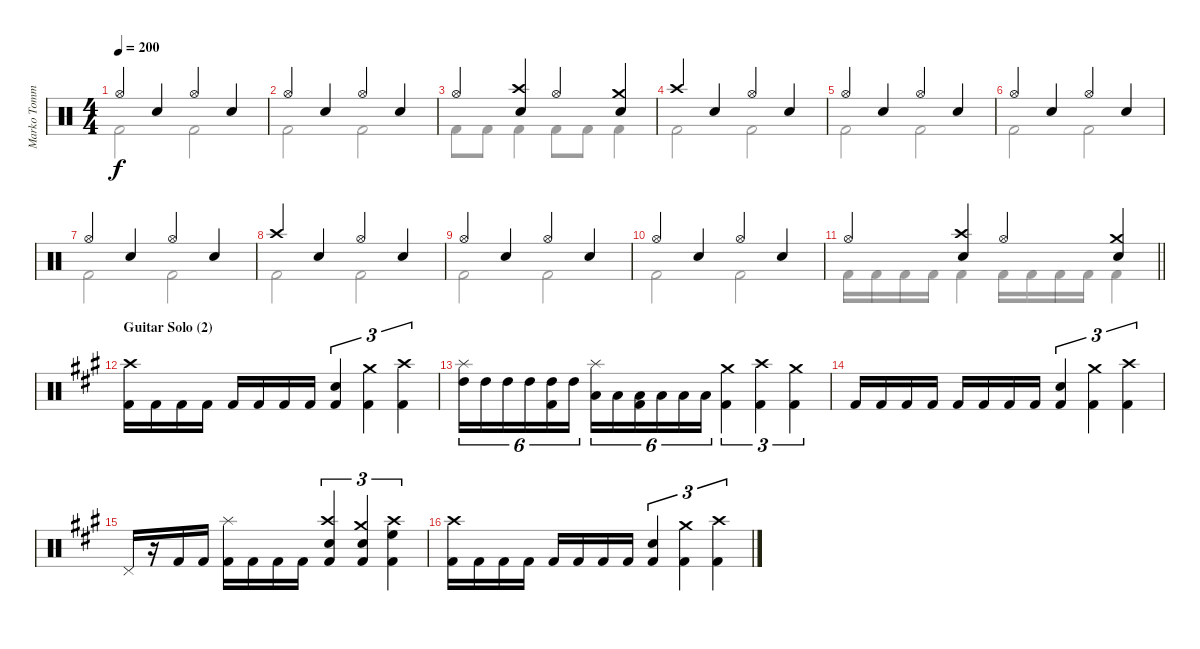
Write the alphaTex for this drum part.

\track ("Marko Tommila (drums)" "Marko Tomm") {instrument percussion}
\staff {score}
\articulation defaults
\voice
\ts (4 4)
\tempo 200
\clef neutral
\ks aminor "Hi-Hat (open)".4{dy f} "Electric Snare (hit)".4 "Hi-Hat (open)".4 "Electric Snare (hit)".4
|
"Hi-Hat (open)".4 "Electric Snare (hit)".4 "Hi-Hat (open)".4 "Electric Snare (hit)".4 |
"Hi-Hat (open)".4 ("Crash high (hit)" "Electric Snare (hit)").4 "Hi-Hat (open)".4 ("Crash medium (hit)" "Electric Snare (hit)").4 |
"Crash high (hit)".4 "Electric Snare (hit)".4 "Hi-Hat (open)".4 "Electric Snare (hit)".4 |
"Hi-Hat (open)".4 "Electric Snare (hit)".4 "Hi-Hat (open)".4 "Electric Snare (hit)".4 |
"Hi-Hat (open)".4 "Electric Snare (hit)".4 "Hi-Hat (open)".4 "Electric Snare (hit)".4 |
"Hi-Hat (open)".4 "Electric Snare (hit)".4 "Hi-Hat (open)".4 "Electric Snare (hit)".4 |
"Crash high (hit)".4 "Electric Snare (hit)".4 "Hi-Hat (open)".4 "Electric Snare (hit)".4 |
"Hi-Hat (open)".4 "Electric Snare (hit)".4 "Hi-Hat (open)".4 "Electric Snare (hit)".4 |
"Hi-Hat (open)".4 "Electric Snare (hit)".4 "Hi-Hat (open)".4 "Electric Snare (hit)".4 |
\barLineRight lightlight "Hi-Hat (open)".4
("Crash high (hit)" "Electric Snare (hit)").4 "Hi-Hat (open)".4 ("Crash medium (hit)" "Electric Snare (hit)").4 |
\section ("" "Guitar Solo (2)")
\ks f#minor
("Crash high (hit)" "Kick (hit) 2").16 "Kick (hit) 2".16 "Kick (hit) 2".16 "Kick (hit) 2".16 "Kick (hit) 2".16 "Kick (hit) 2".16 "Kick (hit) 2".16 "Kick (hit) 2".16 ("Electric Snare (hit)" "Kick (hit) 2").4{tu (3 2)} ("Crash medium (hit)" "Kick (hit) 2").4{tu (3 2)} ("Crash high (hit)" "Kick (hit) 2").4{tu (3 2)} |
("Splash (hit)" "High Tom (hit)").16{tu (6 4)} "High Tom (hit)".16{tu (6 4)} "High Tom (hit)".16{tu (6 4)} "High Tom (hit)".16{tu (6 4)} ("High Tom (hit)" "Kick (hit) 2").16{tu (6 4)} "High Tom (hit)".16{tu (6 4)} ("Splash (hit)" "Low Tom (hit)").16{tu (6 4)} "Low Tom (hit)".16{tu (6 4)} ("Low Tom (hit)" "Kick (hit) 2").16{tu (6 4)} "Low Tom (hit)".16{tu (6 4)} "Low Tom (hit)".16{tu (6 4)} "Low Tom (hit)".16{tu (6 4)} ("Crash medium (hit)" "Kick (hit) 2").4{tu (3 2)} ("Crash high (hit)" "Kick (hit) 2").4{tu (3 2)} ("Crash medium (hit)" "Kick (hit) 2").4{tu (3 2)} |
"Kick (hit) 2".16 "Kick (hit) 2".16 "Kick (hit) 2".16 "Kick (hit) 2".16 "Kick (hit) 2".16 "Kick (hit) 2".16 "Kick (hit) 2".16 "Kick (hit) 2".16 ("Electric Snare (hit)" "Kick (hit) 2").4{tu (3 2)} ("Crash medium (hit)" "Kick (hit) 2").4{tu (3 2)} ("Crash high (hit)" "Kick (hit) 2").4{tu (3 2)} |
"Pedal Hi-Hat (hit)".16 r.16 "Kick (hit) 2".16 "Kick (hit) 2".16 ("Splash (hit)" "Kick (hit) 2").16 "Kick (hit) 2".16 "Kick (hit) 2".16 "Kick (hit) 2".16 ("Crash high (hit)" "Electric Snare (hit)" "Kick (hit) 2").4{tu (3 2)} ("Crash medium (hit)" "Electric Snare (hit)" "Kick (hit) 2").4{tu (3 2)} ("Crash high (hit)" "High Floor Tom (hit)" "Kick (hit) 2").4{tu (3 2)} |
("Crash high (hit)" "Kick (hit) 2").16 "Kick (hit) 2".16 "Kick (hit) 2".16 "Kick (hit) 2".16 "Kick (hit) 2".16 "Kick (hit) 2".16 "Kick (hit) 2".16 "Kick (hit) 2".16 ("Electric Snare (hit)" "Kick (hit) 2").4{tu (3 2)} ("Crash medium (hit)" "Kick (hit) 2").4{tu (3 2)} ("Crash high (hit)" "Kick (hit) 2").4{tu (3 2)}
\voice
\clef neutral
\ottava regular
\simile none
\ks aminor "Kick (hit) 2".2{dy f} "Kick (hit) 2".2
|
"Kick (hit) 2".2 "Kick (hit) 2".2 |
"Kick (hit) 2".8 "Kick (hit) 2".8 "Kick (hit) 2".4 "Kick (hit) 2".8 "Kick (hit) 2".8 "Kick (hit) 2".4 |
"Kick (hit) 2".2 "Kick (hit) 2".2 |
"Kick (hit) 2".2 "Kick (hit) 2".2 |
"Kick (hit) 2".2 "Kick (hit) 2".2 |
"Kick (hit) 2".2 "Kick (hit) 2".2 |
"Kick (hit) 2".2 "Kick (hit) 2".2 |
"Kick (hit) 2".2 "Kick (hit) 2".2 |
"Kick (hit) 2".2 "Kick (hit) 2".2 |
\barLineRight lightlight "Kick (hit) 2".16 "Kick (hit) 2".16 "Kick (hit) 2".16 "Kick (hit) 2".16 "Kick (hit) 2".4 "Kick (hit) 2".16 "Kick (hit) 2".16 "Kick (hit) 2".16 "Kick (hit) 2".16 "Kick (hit) 2".4
|
\ks f#minor
|
|
|
|
